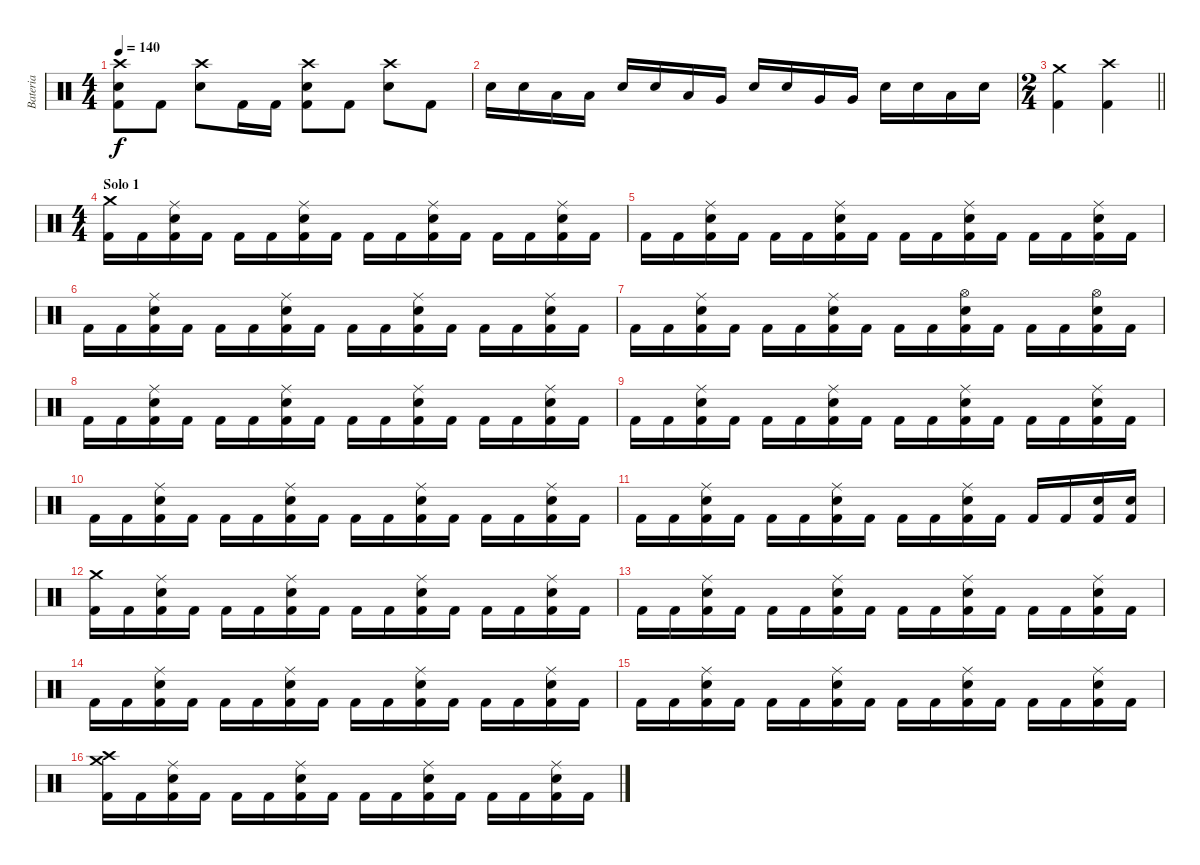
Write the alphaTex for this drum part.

\track ("Bateria" "Bateria") {instrument percussion}
\staff {score}
\articulation defaults
\ts (4 4)
\tempo 140
\clef neutral
\ks c
("Crash high (hit)" "Snare (hit) 2" "Kick (hit) 2").8{dy f} "Kick (hit) 2".8 ("Crash high (hit)" "Snare (hit) 2").8 "Kick (hit) 2".16 "Kick (hit) 2".16 ("Crash high (hit)" "Snare (hit) 2" "Kick (hit) 2").8 "Kick (hit) 2".8 ("Crash high (hit)" "Snare (hit) 2").8 "Kick (hit) 2".8 |
"Snare (hit) 2".16 "Snare (hit) 2".16 "Low Tom (hit)".16 "Low Tom (hit)".16 "Snare (hit) 2".16 "Snare (hit) 2".16 "Low Tom (hit)".16 "Very Low Tom (hit)".16 "Snare (hit) 2".16 "Snare (hit) 2".16 "Very Low Tom (hit)".16 "Very Low Tom (hit)".16 "Snare (hit) 2".16 "Snare (hit) 2".16 "Low Floor Tom (hit)".16 "Snare (hit) 2".16 |
\ts (2 4)
\barLineRight lightlight
("Crash medium (hit)" "Kick (hit) 2").4 ("Crash high (hit)" "Kick (hit) 2").4 |
\ts (4 4)
\section ("" "Solo 1")
("Crash medium (hit)" "Kick (hit) 2").16 "Kick (hit) 2".16 ("Ride (middle)" "Snare (hit) 2" "Kick (hit) 2").16 "Kick (hit) 2".16 "Kick (hit) 2".16 "Kick (hit) 2".16 ("Ride (middle)" "Snare (hit) 2" "Kick (hit) 2").16 "Kick (hit) 2".16 "Kick (hit) 2".16 "Kick (hit) 2".16 ("Ride (middle)" "Snare (hit) 2" "Kick (hit) 2").16 "Kick (hit) 2".16 "Kick (hit) 2".16 "Kick (hit) 2".16 ("Ride (middle)" "Snare (hit) 2" "Kick (hit) 2").16 "Kick (hit) 2".16 |
"Kick (hit) 2".16 "Kick (hit) 2".16 ("Ride (middle)" "Snare (hit) 2" "Kick (hit) 2").16 "Kick (hit) 2".16 "Kick (hit) 2".16 "Kick (hit) 2".16 ("Ride (middle)" "Snare (hit) 2" "Kick (hit) 2").16 "Kick (hit) 2".16 "Kick (hit) 2".16 "Kick (hit) 2".16 ("Ride (middle)" "Snare (hit) 2" "Kick (hit) 2").16 "Kick (hit) 2".16 "Kick (hit) 2".16 "Kick (hit) 2".16 ("Ride (middle)" "Snare (hit) 2" "Kick (hit) 2").16 "Kick (hit) 2".16 |
"Kick (hit) 2".16 "Kick (hit) 2".16 ("Ride (middle)" "Snare (hit) 2" "Kick (hit) 2").16 "Kick (hit) 2".16 "Kick (hit) 2".16 "Kick (hit) 2".16 ("Ride (middle)" "Snare (hit) 2" "Kick (hit) 2").16 "Kick (hit) 2".16 "Kick (hit) 2".16 "Kick (hit) 2".16 ("Ride (middle)" "Snare (hit) 2" "Kick (hit) 2").16 "Kick (hit) 2".16 "Kick (hit) 2".16 "Kick (hit) 2".16 ("Ride (middle)" "Snare (hit) 2" "Kick (hit) 2").16 "Kick (hit) 2".16 |
"Kick (hit) 2".16 "Kick (hit) 2".16 ("Ride (middle)" "Snare (hit) 2" "Kick (hit) 2").16 "Kick (hit) 2".16 "Kick (hit) 2".16 "Kick (hit) 2".16 ("Ride (middle)" "Snare (hit) 2" "Kick (hit) 2").16 "Kick (hit) 2".16 "Kick (hit) 2".16 "Kick (hit) 2".16 ("Hi-Hat (open)" "Snare (hit) 2" "Kick (hit) 2").16 "Kick (hit) 2".16 "Kick (hit) 2".16 "Kick (hit) 2".16 ("Hi-Hat (open)" "Snare (hit) 2" "Kick (hit) 2").16 "Kick (hit) 2".16 |
"Kick (hit) 2".16 "Kick (hit) 2".16 ("Ride (middle)" "Snare (hit) 2" "Kick (hit) 2").16 "Kick (hit) 2".16 "Kick (hit) 2".16 "Kick (hit) 2".16 ("Ride (middle)" "Snare (hit) 2" "Kick (hit) 2").16 "Kick (hit) 2".16 "Kick (hit) 2".16 "Kick (hit) 2".16 ("Ride (middle)" "Snare (hit) 2" "Kick (hit) 2").16 "Kick (hit) 2".16 "Kick (hit) 2".16 "Kick (hit) 2".16 ("Ride (middle)" "Snare (hit) 2" "Kick (hit) 2").16 "Kick (hit) 2".16 |
"Kick (hit) 2".16 "Kick (hit) 2".16 ("Ride (middle)" "Snare (hit) 2" "Kick (hit) 2").16 "Kick (hit) 2".16 "Kick (hit) 2".16 "Kick (hit) 2".16 ("Ride (middle)" "Snare (hit) 2" "Kick (hit) 2").16 "Kick (hit) 2".16 "Kick (hit) 2".16 "Kick (hit) 2".16 ("Ride (middle)" "Snare (hit) 2" "Kick (hit) 2").16 "Kick (hit) 2".16 "Kick (hit) 2".16 "Kick (hit) 2".16 ("Ride (middle)" "Snare (hit) 2" "Kick (hit) 2").16 "Kick (hit) 2".16 |
"Kick (hit) 2".16 "Kick (hit) 2".16 ("Ride (middle)" "Snare (hit) 2" "Kick (hit) 2").16 "Kick (hit) 2".16 "Kick (hit) 2".16 "Kick (hit) 2".16 ("Ride (middle)" "Snare (hit) 2" "Kick (hit) 2").16 "Kick (hit) 2".16 "Kick (hit) 2".16 "Kick (hit) 2".16 ("Ride (middle)" "Snare (hit) 2" "Kick (hit) 2").16 "Kick (hit) 2".16 "Kick (hit) 2".16 "Kick (hit) 2".16 ("Ride (middle)" "Snare (hit) 2" "Kick (hit) 2").16 "Kick (hit) 2".16 |
"Kick (hit) 2".16 "Kick (hit) 2".16 ("Ride (middle)" "Snare (hit) 2" "Kick (hit) 2").16 "Kick (hit) 2".16 "Kick (hit) 2".16 "Kick (hit) 2".16 ("Ride (middle)" "Snare (hit) 2" "Kick (hit) 2").16 "Kick (hit) 2".16 "Kick (hit) 2".16 "Kick (hit) 2".16 ("Ride (middle)" "Snare (hit) 2" "Kick (hit) 2").16 "Kick (hit) 2".16 "Kick (hit) 2".16 "Kick (hit) 2".16 ("Snare (hit) 2" "Kick (hit) 2").16 ("Snare (hit) 2" "Kick (hit) 2").16 |
("Crash medium (hit)" "Kick (hit) 2").16 "Kick (hit) 2".16 ("Ride (middle)" "Snare (hit) 2" "Kick (hit) 2").16 "Kick (hit) 2".16 "Kick (hit) 2".16 "Kick (hit) 2".16 ("Ride (middle)" "Snare (hit) 2" "Kick (hit) 2").16 "Kick (hit) 2".16 "Kick (hit) 2".16 "Kick (hit) 2".16 ("Ride (middle)" "Snare (hit) 2" "Kick (hit) 2").16 "Kick (hit) 2".16 "Kick (hit) 2".16 "Kick (hit) 2".16 ("Ride (middle)" "Snare (hit) 2" "Kick (hit) 2").16 "Kick (hit) 2".16 |
"Kick (hit) 2".16 "Kick (hit) 2".16 ("Ride (middle)" "Snare (hit) 2" "Kick (hit) 2").16 "Kick (hit) 2".16 "Kick (hit) 2".16 "Kick (hit) 2".16 ("Ride (middle)" "Snare (hit) 2" "Kick (hit) 2").16 "Kick (hit) 2".16 "Kick (hit) 2".16 "Kick (hit) 2".16 ("Ride (middle)" "Snare (hit) 2" "Kick (hit) 2").16 "Kick (hit) 2".16 "Kick (hit) 2".16 "Kick (hit) 2".16 ("Ride (middle)" "Snare (hit) 2" "Kick (hit) 2").16 "Kick (hit) 2".16 |
"Kick (hit) 2".16 "Kick (hit) 2".16 ("Ride (middle)" "Snare (hit) 2" "Kick (hit) 2").16 "Kick (hit) 2".16 "Kick (hit) 2".16 "Kick (hit) 2".16 ("Ride (middle)" "Snare (hit) 2" "Kick (hit) 2").16 "Kick (hit) 2".16 "Kick (hit) 2".16 "Kick (hit) 2".16 ("Ride (middle)" "Snare (hit) 2" "Kick (hit) 2").16 "Kick (hit) 2".16 "Kick (hit) 2".16 "Kick (hit) 2".16 ("Ride (middle)" "Snare (hit) 2" "Kick (hit) 2").16 "Kick (hit) 2".16 |
"Kick (hit) 2".16 "Kick (hit) 2".16 ("Ride (middle)" "Snare (hit) 2" "Kick (hit) 2").16 "Kick (hit) 2".16 "Kick (hit) 2".16 "Kick (hit) 2".16 ("Ride (middle)" "Snare (hit) 2" "Kick (hit) 2").16 "Kick (hit) 2".16 "Kick (hit) 2".16 "Kick (hit) 2".16 ("Ride (middle)" "Snare (hit) 2" "Kick (hit) 2").16 "Kick (hit) 2".16 "Kick (hit) 2".16 "Kick (hit) 2".16 ("Ride (middle)" "Snare (hit) 2" "Kick (hit) 2").16 "Kick (hit) 2".16 |
("Crash high (hit)" "Crash medium (hit)" "Kick (hit) 2").16 "Kick (hit) 2".16 ("Ride (middle)" "Snare (hit) 2" "Kick (hit) 2").16 "Kick (hit) 2".16 "Kick (hit) 2".16 "Kick (hit) 2".16 ("Ride (middle)" "Snare (hit) 2" "Kick (hit) 2").16 "Kick (hit) 2".16 "Kick (hit) 2".16 "Kick (hit) 2".16 ("Ride (middle)" "Snare (hit) 2" "Kick (hit) 2").16 "Kick (hit) 2".16 "Kick (hit) 2".16 "Kick (hit) 2".16 ("Ride (middle)" "Snare (hit) 2" "Kick (hit) 2").16 "Kick (hit) 2".16
